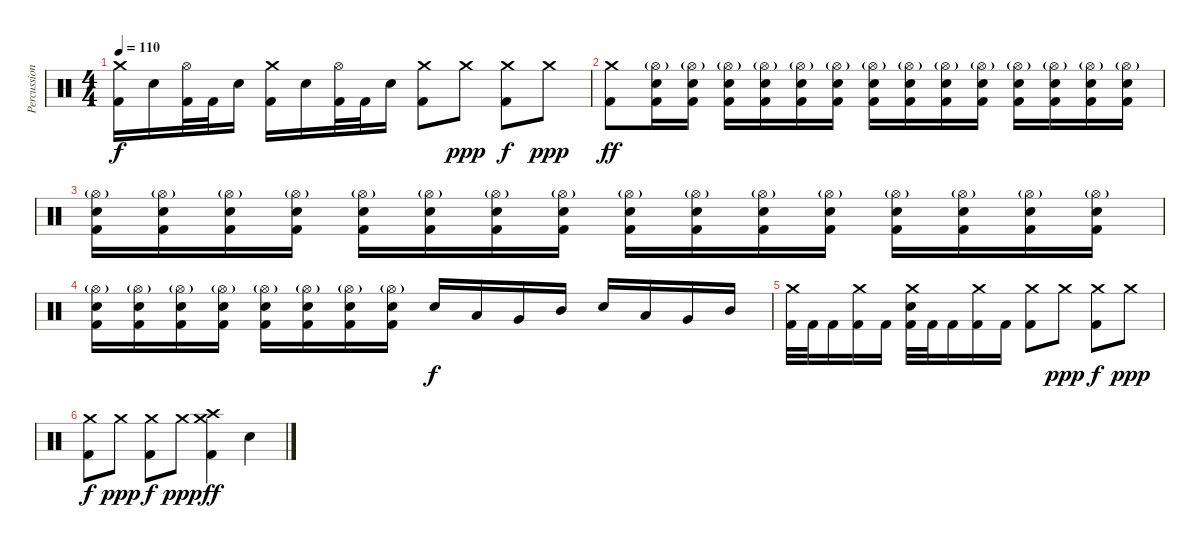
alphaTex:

\track ("Percussion" "Percussion") {instrument percussion}
\staff {score}
\articulation defaults
\ts (4 4)
\tempo 110
\clef neutral
\ks c
("Crash medium (hit)" "Kick (hit) 2").16{dy f} "Electric Snare (hit)".16 ("Hi-Hat (open)" "Kick (hit) 2").32 "Kick (hit) 2".32 "Electric Snare (hit)".16 ("Crash medium (hit)" "Kick (hit) 2").16 "Electric Snare (hit)".16 ("Hi-Hat (open)" "Kick (hit) 2").32 "Kick (hit) 2".32 "Electric Snare (hit)".16 ("Crash medium (hit)" "Kick (hit) 2").8 "Crash medium (hit)".8{dy ppp} ("Crash medium (hit)" "Kick (hit) 2").8{dy f} "Crash medium (hit)".8{dy ppp} |
("Crash medium (hit)" "Kick (hit) 2").8{dy ff} ("Hi-Hat (open)"{g} "Electric Snare (hit)" "Kick (hit) 2").16 ("Hi-Hat (open)"{g} "Electric Snare (hit)" "Kick (hit) 2").16 ("Hi-Hat (open)"{g} "Electric Snare (hit)" "Kick (hit) 2").16 ("Hi-Hat (open)"{g} "Electric Snare (hit)" "Kick (hit) 2").16 ("Hi-Hat (open)"{g} "Electric Snare (hit)" "Kick (hit) 2").16 ("Hi-Hat (open)"{g} "Electric Snare (hit)" "Kick (hit) 2").16 ("Hi-Hat (open)"{g} "Electric Snare (hit)" "Kick (hit) 2").16 ("Hi-Hat (open)"{g} "Electric Snare (hit)" "Kick (hit) 2").16 ("Hi-Hat (open)"{g} "Electric Snare (hit)" "Kick (hit) 2").16 ("Hi-Hat (open)"{g} "Electric Snare (hit)" "Kick (hit) 2").16 ("Hi-Hat (open)"{g} "Electric Snare (hit)" "Kick (hit) 2").16 ("Hi-Hat (open)"{g} "Electric Snare (hit)" "Kick (hit) 2").16 ("Hi-Hat (open)"{g} "Electric Snare (hit)" "Kick (hit) 2").16 ("Hi-Hat (open)"{g} "Electric Snare (hit)" "Kick (hit) 2").16 |
("Hi-Hat (open)"{g} "Electric Snare (hit)" "Kick (hit) 2").16 ("Hi-Hat (open)"{g} "Electric Snare (hit)" "Kick (hit) 2").16 ("Hi-Hat (open)"{g} "Electric Snare (hit)" "Kick (hit) 2").16 ("Hi-Hat (open)"{g} "Electric Snare (hit)" "Kick (hit) 2").16 ("Hi-Hat (open)"{g} "Electric Snare (hit)" "Kick (hit) 2").16 ("Hi-Hat (open)"{g} "Electric Snare (hit)" "Kick (hit) 2").16 ("Hi-Hat (open)"{g} "Electric Snare (hit)" "Kick (hit) 2").16 ("Hi-Hat (open)"{g} "Electric Snare (hit)" "Kick (hit) 2").16 ("Hi-Hat (open)"{g} "Electric Snare (hit)" "Kick (hit) 2").16 ("Hi-Hat (open)"{g} "Electric Snare (hit)" "Kick (hit) 2").16 ("Hi-Hat (open)"{g} "Electric Snare (hit)" "Kick (hit) 2").16 ("Hi-Hat (open)"{g} "Electric Snare (hit)" "Kick (hit) 2").16 ("Hi-Hat (open)"{g} "Electric Snare (hit)" "Kick (hit) 2").16 ("Hi-Hat (open)"{g} "Electric Snare (hit)" "Kick (hit) 2").16 ("Hi-Hat (open)"{g} "Electric Snare (hit)" "Kick (hit) 2").16 ("Hi-Hat (open)"{g} "Electric Snare (hit)" "Kick (hit) 2").16 |
("Hi-Hat (open)"{g} "Electric Snare (hit)" "Kick (hit) 2").16 ("Hi-Hat (open)"{g} "Electric Snare (hit)" "Kick (hit) 2").16 ("Hi-Hat (open)"{g} "Electric Snare (hit)" "Kick (hit) 2").16 ("Hi-Hat (open)"{g} "Electric Snare (hit)" "Kick (hit) 2").16 ("Hi-Hat (open)"{g} "Electric Snare (hit)" "Kick (hit) 2").16 ("Hi-Hat (open)"{g} "Electric Snare (hit)" "Kick (hit) 2").16 ("Hi-Hat (open)"{g} "Electric Snare (hit)" "Kick (hit) 2").16 ("Hi-Hat (open)"{g} "Electric Snare (hit)" "Kick (hit) 2").16 "Electric Snare (hit)".16{dy f} "Low Tom (hit)".16 "Very Low Tom (hit)".16 "Mid Tom (hit)".16 "Electric Snare (hit)".16 "Low Tom (hit)".16 "Very Low Tom (hit)".16 "Mid Tom (hit)".16 |
("Crash medium (hit)" "Kick (hit) 2").32 "Kick (hit) 2".32 "Kick (hit) 2".16 ("Crash medium (hit)" "Kick (hit) 2").16 "Kick (hit) 2".16 ("Crash medium (hit)" "Electric Snare (hit)" "Kick (hit) 2").32 "Kick (hit) 2".32 "Kick (hit) 2".16 ("Crash medium (hit)" "Kick (hit) 2").16 "Kick (hit) 2".16 ("Crash medium (hit)" "Kick (hit) 2").8 "Crash medium (hit)".8{dy ppp} ("Crash medium (hit)" "Kick (hit) 2").8{dy f} "Crash medium (hit)".8{dy ppp} |
("Crash medium (hit)" "Kick (hit) 2").8{dy f} "Crash medium (hit)".8{dy ppp} ("Crash medium (hit)" "Kick (hit) 2").8{dy f} "Crash medium (hit)".8{dy ppp} ("Crash medium (hit)" "Crash high (hit)" "Kick (hit) 2").4{dy ff} "Electric Snare (hit)".4
